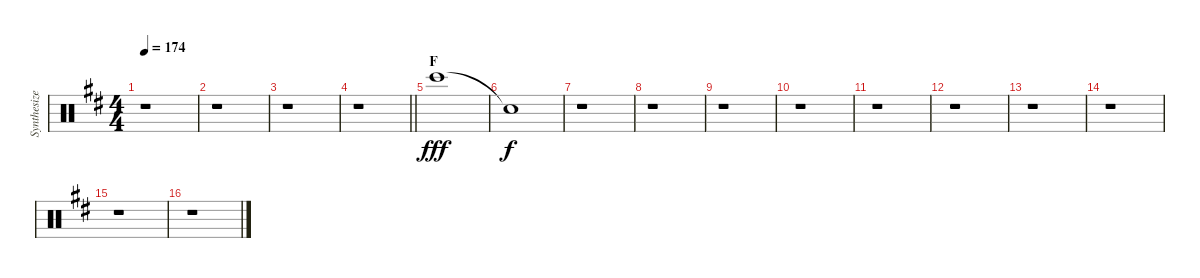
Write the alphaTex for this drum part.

\track ("Synthesized Slap" "Synthesize") {instrument percussion}
\staff {score}
\articulation defaults
\ts (4 4)
\tempo 174
\clef neutral
\ks bminor
r.1{dy f} |
r.1 |
r.1 |
\barLineRight lightlight
r.1 |
\section ("" "F")
"Bongo High (hit)".1{dy fff} |
"Snare (hit)"{t}.1{dy f} |
r.1 |
r.1 |
r.1 |
r.1 |
r.1 |
r.1 |
r.1 |
r.1 |
r.1 |
r.1
